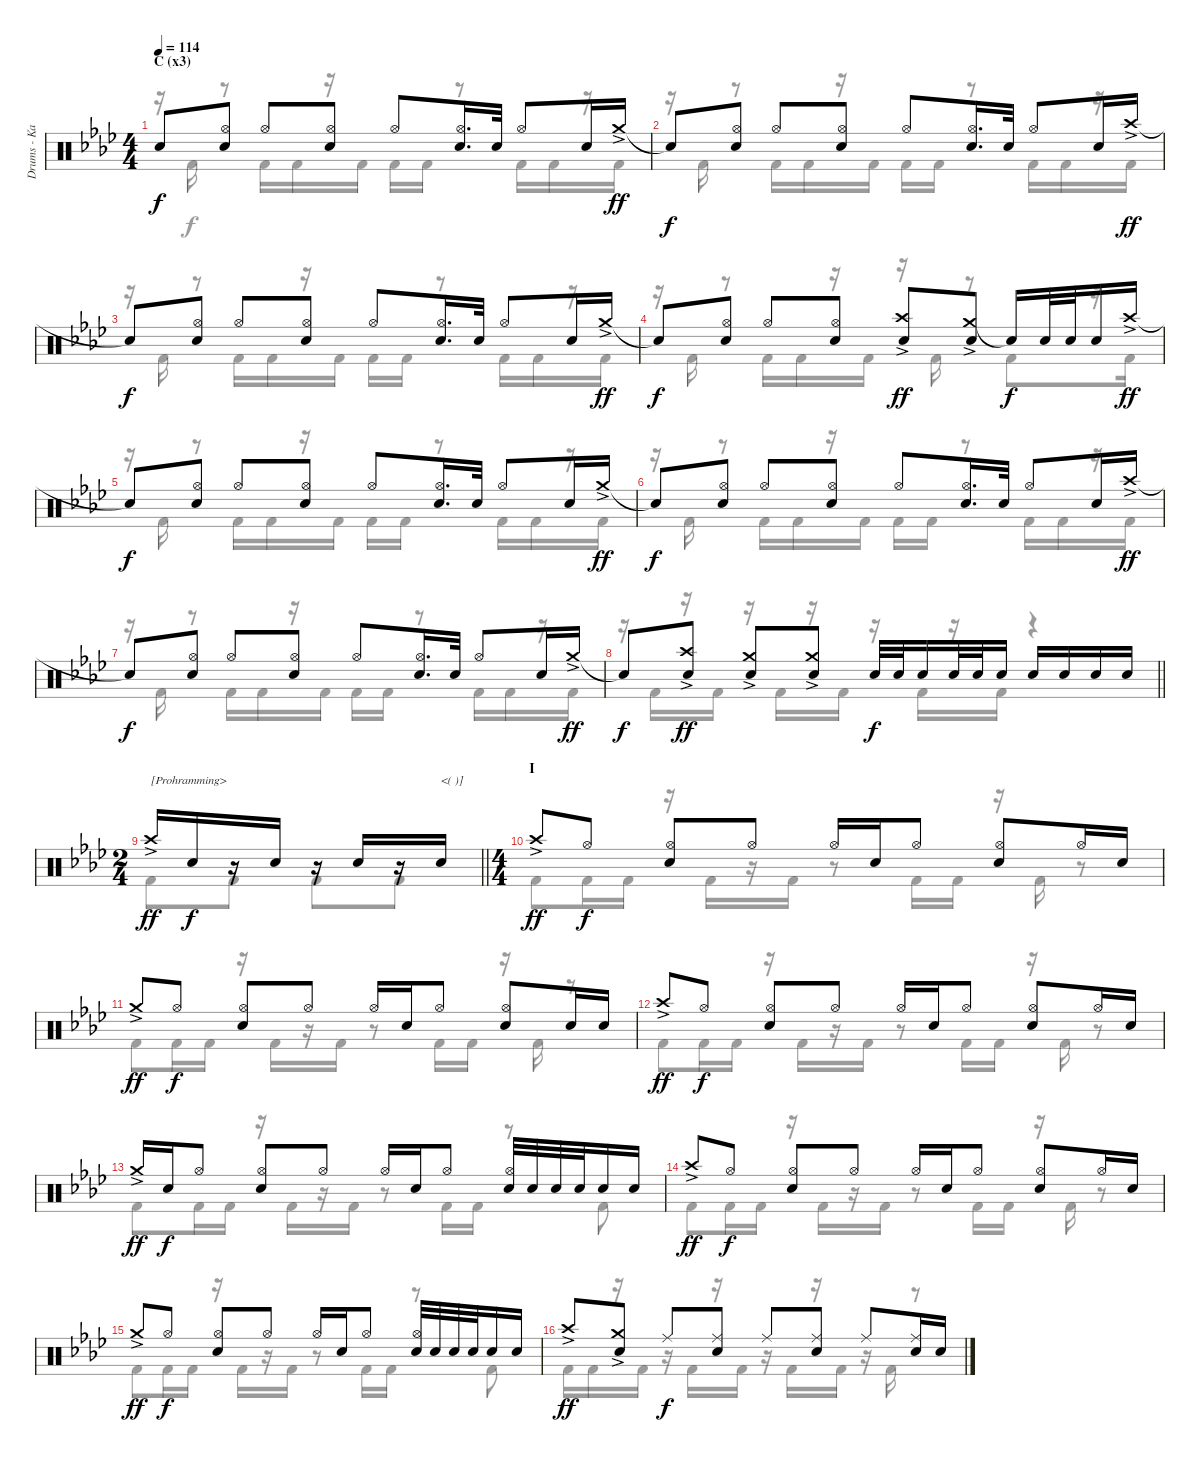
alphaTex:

\track ("Drums - Kai" "Drums - Ka") {instrument percussion}
\staff {score}
\articulation defaults
\voice
\ts (4 4)
\section ("" "C (x3)")
\tempo 114
\clef neutral
\ks ab "Snare (hit)"{t}.8{dy f}
("Hi-Hat (open)" "Snare (hit) 2").8 "Hi-Hat (open)".8 ("Hi-Hat (open)" "Snare (hit) 2").8 "Hi-Hat (open)".8 ("Hi-Hat (open)" "Snare (hit) 2").16{d} "Snare (hit) 2".32 "Hi-Hat (open)".8 "Snare (hit) 2".16 "Crash medium (hit)"{ac}.16{dy ff} |
"Snare (hit)"{t}.8{dy f} ("Hi-Hat (open)" "Snare (hit) 2").8 "Hi-Hat (open)".8 ("Hi-Hat (open)" "Snare (hit) 2").8 "Hi-Hat (open)".8 ("Hi-Hat (open)" "Snare (hit) 2").16{d} "Snare (hit) 2".32 "Hi-Hat (open)".8 "Snare (hit) 2".16 "Crash high (hit)"{ac}.16{dy ff} |
"Snare (hit)"{t}.8{dy f} ("Hi-Hat (open)" "Snare (hit) 2").8 "Hi-Hat (open)".8 ("Hi-Hat (open)" "Snare (hit) 2").8 "Hi-Hat (open)".8 ("Hi-Hat (open)" "Snare (hit) 2").16{d} "Snare (hit) 2".32 "Hi-Hat (open)".8 "Snare (hit) 2".16 "Crash medium (hit)"{ac}.16{dy ff} |
"Snare (hit)"{t}.8{dy f} ("Hi-Hat (open)" "Snare (hit) 2").8 "Hi-Hat (open)".8 ("Hi-Hat (open)" "Snare (hit) 2").8 ("Crash high (hit)"{ac} "Snare (hit) 2").8{dy ff} ("Crash medium (hit)"{ac} "Snare (hit) 2").8 "Snare (hit)"{t}.16{dy f} "Snare (hit) 2".32 "Snare (hit) 2".32 "Snare (hit) 2".16 "Crash high (hit)"{ac}.16{dy ff} |
"Snare (hit)"{t}.8{dy f} ("Hi-Hat (open)" "Snare (hit) 2").8 "Hi-Hat (open)".8 ("Hi-Hat (open)" "Snare (hit) 2").8 "Hi-Hat (open)".8 ("Hi-Hat (open)" "Snare (hit) 2").16{d} "Snare (hit) 2".32 "Hi-Hat (open)".8 "Snare (hit) 2".16 "Crash medium (hit)"{ac}.16{dy ff} |
"Snare (hit)"{t}.8{dy f} ("Hi-Hat (open)" "Snare (hit) 2").8 "Hi-Hat (open)".8 ("Hi-Hat (open)" "Snare (hit) 2").8 "Hi-Hat (open)".8 ("Hi-Hat (open)" "Snare (hit) 2").16{d} "Snare (hit) 2".32 "Hi-Hat (open)".8 "Snare (hit) 2".16 "Crash high (hit)"{ac}.16{dy ff} |
"Snare (hit)"{t}.8{dy f} ("Hi-Hat (open)" "Snare (hit) 2").8 "Hi-Hat (open)".8 ("Hi-Hat (open)" "Snare (hit) 2").8 "Hi-Hat (open)".8 ("Hi-Hat (open)" "Snare (hit) 2").16{d} "Snare (hit) 2".32 "Hi-Hat (open)".8 "Snare (hit) 2".16 "Crash medium (hit)"{ac}.16{dy ff} |
\barLineRight lightlight "Snare (hit)"{t}.8{dy f}
("Crash high (hit)"{ac} "Snare (hit) 2").8{dy ff} ("Crash medium (hit)"{ac} "Snare (hit) 2").8 ("Crash medium (hit)"{ac} "Snare (hit) 2").8 "Snare (hit) 2".32{dy f} "Snare (hit) 2".32 "Snare (hit) 2".16 "Snare (hit) 2".32 "Snare (hit) 2".32 "Snare (hit) 2".16 "Snare (hit) 2".16 "Snare (hit) 2".16 "Snare (hit) 2".16 "Snare (hit) 2".16 |
\ts (2 4)
\barLineRight lightlight "Crash high (hit)"{ac}.16{txt "[Prohramming>" dy ff} "Snare (hit) 2".16{dy f}
r.16 "Snare (hit) 2".16 r.16 "Snare (hit) 2".16 r.16 "Snare (hit) 2".16{txt "<( )]"} |
\ts (4 4)
\section ("" "I")
"Crash high (hit)"{ac}.8{dy ff} "Hi-Hat (open)".8{dy f} ("Hi-Hat (open)" "Snare (hit) 2").8 "Hi-Hat (open)".8 "Hi-Hat (open)".16 "Snare (hit) 2".16 "Hi-Hat (open)".8 ("Hi-Hat (open)" "Snare (hit) 2").8 "Hi-Hat (open)".16 "Snare (hit) 2".16 |
"Crash medium (hit)"{ac}.8{dy ff} "Hi-Hat (open)".8{dy f} ("Hi-Hat (open)" "Snare (hit) 2").8 "Hi-Hat (open)".8 "Hi-Hat (open)".16 "Snare (hit) 2".16 "Hi-Hat (open)".8 ("Hi-Hat (open)" "Snare (hit) 2").8 "Snare (hit) 2".16 "Snare (hit) 2".16 |
"Crash high (hit)"{ac}.8{dy ff} "Hi-Hat (open)".8{dy f} ("Hi-Hat (open)" "Snare (hit) 2").8 "Hi-Hat (open)".8 "Hi-Hat (open)".16 "Snare (hit) 2".16 "Hi-Hat (open)".8 ("Hi-Hat (open)" "Snare (hit) 2").8 "Hi-Hat (open)".16 "Snare (hit) 2".16 |
"Crash medium (hit)"{ac}.16{dy ff} "Snare (hit) 2".16{dy f} "Hi-Hat (open)".8 ("Hi-Hat (open)" "Snare (hit) 2").8 "Hi-Hat (open)".8 "Hi-Hat (open)".16 "Snare (hit) 2".16 "Hi-Hat (open)".8 ("Hi-Hat (open)" "Snare (hit) 2").32 "Snare (hit) 2".32 "Snare (hit) 2".32 "Snare (hit) 2".32 "Snare (hit) 2".16 "Snare (hit) 2".16 |
"Crash high (hit)"{ac}.8{dy ff} "Hi-Hat (open)".8{dy f} ("Hi-Hat (open)" "Snare (hit) 2").8 "Hi-Hat (open)".8 "Hi-Hat (open)".16 "Snare (hit) 2".16 "Hi-Hat (open)".8 ("Hi-Hat (open)" "Snare (hit) 2").8 "Hi-Hat (open)".16 "Snare (hit) 2".16 |
"Crash medium (hit)"{ac}.8{dy ff} "Hi-Hat (open)".8{dy f} ("Hi-Hat (open)" "Snare (hit) 2").8 "Hi-Hat (open)".8 "Hi-Hat (open)".16 "Snare (hit) 2".16 "Hi-Hat (open)".8 ("Hi-Hat (open)" "Snare (hit) 2").32 "Snare (hit) 2".32 "Snare (hit) 2".32 "Snare (hit) 2".32 "Snare (hit) 2".16 "Snare (hit) 2".16 |
"Crash high (hit)"{ac}.8{dy ff} ("Crash medium (hit)"{ac} "Snare (hit) 2").8 "Ride (middle)".8{dy f} ("Ride (middle)" "Snare (hit) 2").8 "Ride (middle)".8 ("Ride (middle)" "Snare (hit) 2").8 "Ride (middle)".8 ("Ride (middle)" "Snare (hit) 2").16 "Snare (hit) 2".16
\voice
\clef neutral
\ottava regular
\simile none
\ks ab
r.16{dy f} "Kick (hit) 2".16 r.8 "Kick (hit) 2".16 "Kick (hit) 2".16 r.16 "Kick (hit) 2".16 "Kick (hit) 2".16 "Kick (hit) 2".16 r.8 "Kick (hit) 2".16 "Kick (hit) 2".16 r.16 "Kick (hit) 2".16 |
r.16 "Kick (hit) 2".16 r.8 "Kick (hit) 2".16 "Kick (hit) 2".16 r.16 "Kick (hit) 2".16 "Kick (hit) 2".16 "Kick (hit) 2".16 r.8 "Kick (hit) 2".16 "Kick (hit) 2".16 r.16 "Kick (hit) 2".16 |
r.16 "Kick (hit) 2".16 r.8 "Kick (hit) 2".16 "Kick (hit) 2".16 r.16 "Kick (hit) 2".16 "Kick (hit) 2".16 "Kick (hit) 2".16 r.8 "Kick (hit) 2".16 "Kick (hit) 2".16 r.16 "Kick (hit) 2".16 |
r.16 "Kick (hit) 2".16 r.8 "Kick (hit) 2".16 "Kick (hit) 2".16 r.16 "Kick (hit) 2".16 r.16 "Kick (hit) 2".16 r.8 "Kick (hit) 2".8 r.16 "Kick (hit) 2".16 |
r.16 "Kick (hit) 2".16 r.8 "Kick (hit) 2".16 "Kick (hit) 2".16 r.16 "Kick (hit) 2".16 "Kick (hit) 2".16 "Kick (hit) 2".16 r.8 "Kick (hit) 2".16 "Kick (hit) 2".16 r.16 "Kick (hit) 2".16 |
r.16 "Kick (hit) 2".16 r.8 "Kick (hit) 2".16 "Kick (hit) 2".16 r.16 "Kick (hit) 2".16 "Kick (hit) 2".16 "Kick (hit) 2".16 r.8 "Kick (hit) 2".16 "Kick (hit) 2".16 r.16 "Kick (hit) 2".16 |
r.16 "Kick (hit) 2".16 r.8 "Kick (hit) 2".16 "Kick (hit) 2".16 r.16 "Kick (hit) 2".16 "Kick (hit) 2".16 "Kick (hit) 2".16 r.8 "Kick (hit) 2".16 "Kick (hit) 2".16 r.16 "Kick (hit) 2".16 |
\barLineRight lightlight
r.16 "Kick (hit) 2".16 r.16 "Kick (hit) 2".16 r.16 "Kick (hit) 2".16 r.16 "Kick (hit) 2".16 r.16 "Kick (hit) 2".16 r.16 "Kick (hit) 2".16 r.4 |
\barLineRight lightlight "Kick (hit) 2".8 "Kick (hit) 2".8 "Kick (hit) 2".8 "Kick (hit) 2".8
|
"Kick (hit) 2".8 "Kick (hit) 2".16 "Kick (hit) 2".16 r.16 "Kick (hit) 2".16 r.16 "Kick (hit) 2".16 r.8 "Kick (hit) 2".16 "Kick (hit) 2".16 r.16 "Kick (hit) 2".16 r.8 |
"Kick (hit) 2".8 "Kick (hit) 2".16 "Kick (hit) 2".16 r.16 "Kick (hit) 2".16 r.16 "Kick (hit) 2".16 r.8 "Kick (hit) 2".16 "Kick (hit) 2".16 r.16 "Kick (hit) 2".16 r.8 |
"Kick (hit) 2".8 "Kick (hit) 2".16 "Kick (hit) 2".16 r.16 "Kick (hit) 2".16 r.16 "Kick (hit) 2".16 r.8 "Kick (hit) 2".16 "Kick (hit) 2".16 r.16 "Kick (hit) 2".16 r.8 |
"Kick (hit) 2".8 "Kick (hit) 2".16 "Kick (hit) 2".16 r.16 "Kick (hit) 2".16 r.16 "Kick (hit) 2".16 r.8 "Kick (hit) 2".16 "Kick (hit) 2".16 r.8 "Kick (hit) 2".8 |
"Kick (hit) 2".8 "Kick (hit) 2".16 "Kick (hit) 2".16 r.16 "Kick (hit) 2".16 r.16 "Kick (hit) 2".16 r.8 "Kick (hit) 2".16 "Kick (hit) 2".16 r.16 "Kick (hit) 2".16 r.8 |
"Kick (hit) 2".8 "Kick (hit) 2".16 "Kick (hit) 2".16 r.16 "Kick (hit) 2".16 r.16 "Kick (hit) 2".16 r.8 "Kick (hit) 2".16 "Kick (hit) 2".16 r.8 "Kick (hit) 2".8 |
"Kick (hit) 2".16 "Kick (hit) 2".16 r.16 "Kick (hit) 2".16 r.16 "Kick (hit) 2".16 r.16 "Kick (hit) 2".16 r.16 "Kick (hit) 2".16 r.16 "Kick (hit) 2".16 r.16 "Kick (hit) 2".16 r.8
